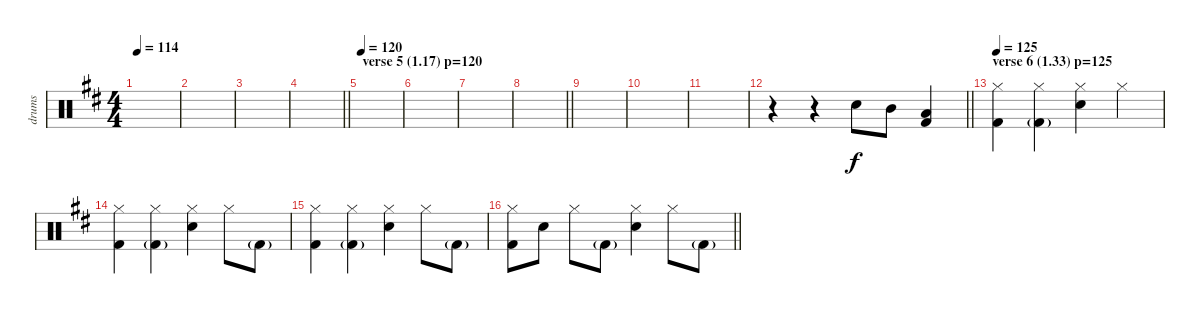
\track ("drums" "drums") {instrument percussion}
\staff {score}
\articulation defaults
\ts (4 4)
\tempo 114
\clef neutral
\ks d
|
|
|
\barLineRight lightlight
|
\section ("" "verse 5 (1.17) p=120")
\tempo 120
|
|
|
\barLineRight lightlight
|
|
|
|
\barLineRight lightlight
r.4 r.4 "Electric Snare (hit)".8 "Mid Tom (hit)".8 ("Low Tom (hit)" "Kick (hit) 2").4 |
\section ("" "verse 6 (1.33) p=125")
\tempo 125
("Hi-Hat (closed)" "Kick (hit) 2").4 ("Hi-Hat (closed)" "Kick (hit) 2"{g}).4 ("Hi-Hat (closed)" "Electric Snare (hit)").4 "Hi-Hat (closed)".4 |
("Hi-Hat (closed)" "Kick (hit) 2").4 ("Hi-Hat (closed)" "Kick (hit) 2"{g}).4 ("Hi-Hat (closed)" "Electric Snare (hit)").4 "Hi-Hat (closed)".8 "Kick (hit) 2"{g}.8 |
("Hi-Hat (closed)" "Kick (hit) 2").4 ("Hi-Hat (closed)" "Kick (hit) 2"{g}).4 ("Hi-Hat (closed)" "Electric Snare (hit)").4 "Hi-Hat (closed)".8 "Kick (hit) 2"{g}.8 |
\barLineRight lightlight
("Hi-Hat (closed)" "Kick (hit) 2").8 "Electric Snare (hit)".8 "Hi-Hat (closed)".8 "Kick (hit) 2"{g}.8 ("Hi-Hat (closed)" "Electric Snare (hit)").4 "Hi-Hat (closed)".8 "Kick (hit) 2"{g}.8
